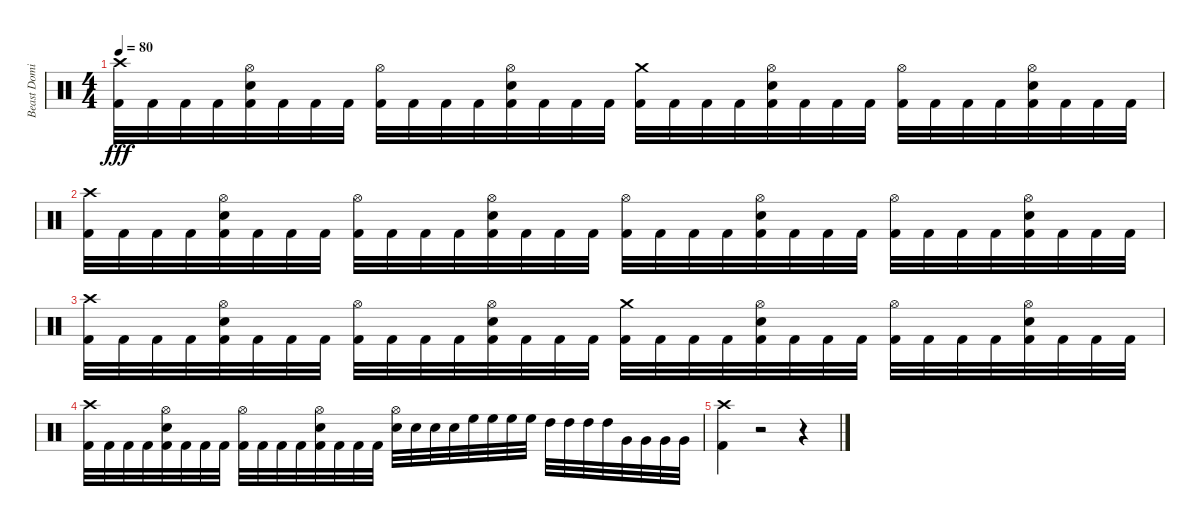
\track ("Beast Dominator" "Beast Domi") {instrument percussion}
\staff {score}
\articulation defaults
\ts (4 4)
\tempo 80
\clef neutral
\ks c
("Crash high (hit)" "Kick (hit) 2").32{dy fff} "Kick (hit) 2".32 "Kick (hit) 2".32 "Kick (hit) 2".32 ("Hi-Hat (open)" "Snare (hit) 2" "Kick (hit) 2").32 "Kick (hit) 2".32 "Kick (hit) 2".32 "Kick (hit) 2".32 ("Hi-Hat (open)" "Kick (hit) 2").32 "Kick (hit) 2".32 "Kick (hit) 2".32 "Kick (hit) 2".32 ("Hi-Hat (open)" "Snare (hit) 2" "Kick (hit) 2").32 "Kick (hit) 2".32 "Kick (hit) 2".32 "Kick (hit) 2".32 ("Crash medium (hit)" "Kick (hit) 2").32 "Kick (hit) 2".32 "Kick (hit) 2".32 "Kick (hit) 2".32 ("Hi-Hat (open)" "Snare (hit) 2" "Kick (hit) 2").32 "Kick (hit) 2".32 "Kick (hit) 2".32 "Kick (hit) 2".32 ("Hi-Hat (open)" "Kick (hit) 2").32 "Kick (hit) 2".32 "Kick (hit) 2".32 "Kick (hit) 2".32 ("Hi-Hat (open)" "Snare (hit) 2" "Kick (hit) 2").32 "Kick (hit) 2".32 "Kick (hit) 2".32 "Kick (hit) 2".32 |
("Crash high (hit)" "Kick (hit) 2").32 "Kick (hit) 2".32 "Kick (hit) 2".32 "Kick (hit) 2".32 ("Hi-Hat (open)" "Snare (hit) 2" "Kick (hit) 2").32 "Kick (hit) 2".32 "Kick (hit) 2".32 "Kick (hit) 2".32 ("Hi-Hat (open)" "Kick (hit) 2").32 "Kick (hit) 2".32 "Kick (hit) 2".32 "Kick (hit) 2".32 ("Hi-Hat (open)" "Snare (hit) 2" "Kick (hit) 2").32 "Kick (hit) 2".32 "Kick (hit) 2".32 "Kick (hit) 2".32 ("Hi-Hat (open)" "Kick (hit) 2").32 "Kick (hit) 2".32 "Kick (hit) 2".32 "Kick (hit) 2".32 ("Hi-Hat (open)" "Snare (hit) 2" "Kick (hit) 2").32 "Kick (hit) 2".32 "Kick (hit) 2".32 "Kick (hit) 2".32 ("Hi-Hat (open)" "Kick (hit) 2").32 "Kick (hit) 2".32 "Kick (hit) 2".32 "Kick (hit) 2".32 ("Hi-Hat (open)" "Snare (hit) 2" "Kick (hit) 2").32 "Kick (hit) 2".32 "Kick (hit) 2".32 "Kick (hit) 2".32 |
("Crash high (hit)" "Kick (hit) 2").32 "Kick (hit) 2".32 "Kick (hit) 2".32 "Kick (hit) 2".32 ("Hi-Hat (open)" "Snare (hit) 2" "Kick (hit) 2").32 "Kick (hit) 2".32 "Kick (hit) 2".32 "Kick (hit) 2".32 ("Hi-Hat (open)" "Kick (hit) 2").32 "Kick (hit) 2".32 "Kick (hit) 2".32 "Kick (hit) 2".32 ("Hi-Hat (open)" "Snare (hit) 2" "Kick (hit) 2").32 "Kick (hit) 2".32 "Kick (hit) 2".32 "Kick (hit) 2".32 ("Crash medium (hit)" "Kick (hit) 2").32 "Kick (hit) 2".32 "Kick (hit) 2".32 "Kick (hit) 2".32 ("Hi-Hat (open)" "Snare (hit) 2" "Kick (hit) 2").32 "Kick (hit) 2".32 "Kick (hit) 2".32 "Kick (hit) 2".32 ("Hi-Hat (open)" "Kick (hit) 2").32 "Kick (hit) 2".32 "Kick (hit) 2".32 "Kick (hit) 2".32 ("Hi-Hat (open)" "Snare (hit) 2" "Kick (hit) 2").32 "Kick (hit) 2".32 "Kick (hit) 2".32 "Kick (hit) 2".32 |
("Crash high (hit)" "Kick (hit) 2").32 "Kick (hit) 2".32 "Kick (hit) 2".32 "Kick (hit) 2".32 ("Hi-Hat (open)" "Snare (hit) 2" "Kick (hit) 2").32 "Kick (hit) 2".32 "Kick (hit) 2".32 "Kick (hit) 2".32 ("Hi-Hat (open)" "Kick (hit) 2").32 "Kick (hit) 2".32 "Kick (hit) 2".32 "Kick (hit) 2".32 ("Hi-Hat (open)" "Snare (hit) 2" "Kick (hit) 2").32 "Kick (hit) 2".32 "Kick (hit) 2".32 "Kick (hit) 2".32 ("Hi-Hat (open)" "Snare (hit) 2").32 "Snare (hit) 2".32 "Snare (hit) 2".32 "Snare (hit) 2".32 "High Floor Tom (hit)".32 "High Floor Tom (hit)".32 "High Floor Tom (hit)".32 "High Floor Tom (hit)".32 "High Tom (hit)".32 "High Tom (hit)".32 "High Tom (hit)".32 "High Tom (hit)".32 "Very Low Tom (hit)".32 "Very Low Tom (hit)".32 "Very Low Tom (hit)".32 "Very Low Tom (hit)".32 |
("Crash high (hit)" "Kick (hit) 2").4 r.2 r.4
